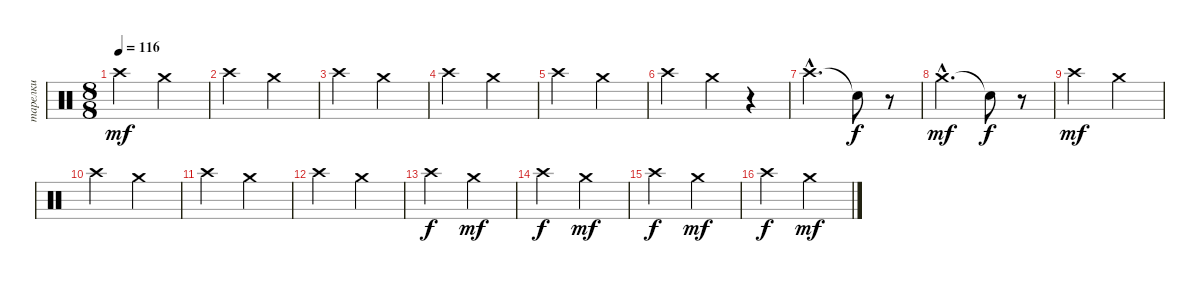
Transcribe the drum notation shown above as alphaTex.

\track ("тарелки" "тарелки") {instrument percussion}
\staff {score}
\articulation defaults
\ts (8 8)
\tempo 116
\clef neutral
\ks c "Crash high (hit)".2{dy mf} "Crash medium (hit)".2
|
"Crash high (hit)".2 "Crash medium (hit)".2 |
"Crash high (hit)".2 "Crash medium (hit)".2 |
"Crash high (hit)".2 "Crash medium (hit)".2 |
"Crash high (hit)".2 "Crash medium (hit)".2 |
"Crash high (hit)".2 "Crash medium (hit)".4 r.4 |
"Crash high (hit)"{hac}.2{d} "Snare (hit)"{t}.8{dy f} r.8 |
"Crash medium (hit)"{hac}.2{d dy mf} "Snare (hit)"{t}.8{dy f} r.8 |
"Crash high (hit)".2{dy mf} "Crash medium (hit)".2 |
"Crash high (hit)".2 "Crash medium (hit)".2 |
"Crash high (hit)".2 "Crash medium (hit)".2 |
"Crash high (hit)".2 "Crash medium (hit)".2 |
"Crash high (hit)".2{dy f} "Crash medium (hit)".2{dy mf} |
"Crash high (hit)".2{dy f} "Crash medium (hit)".2{dy mf} |
"Crash high (hit)".2{dy f} "Crash medium (hit)".2{dy mf} |
"Crash high (hit)".2{dy f} "Crash medium (hit)".2{dy mf}
